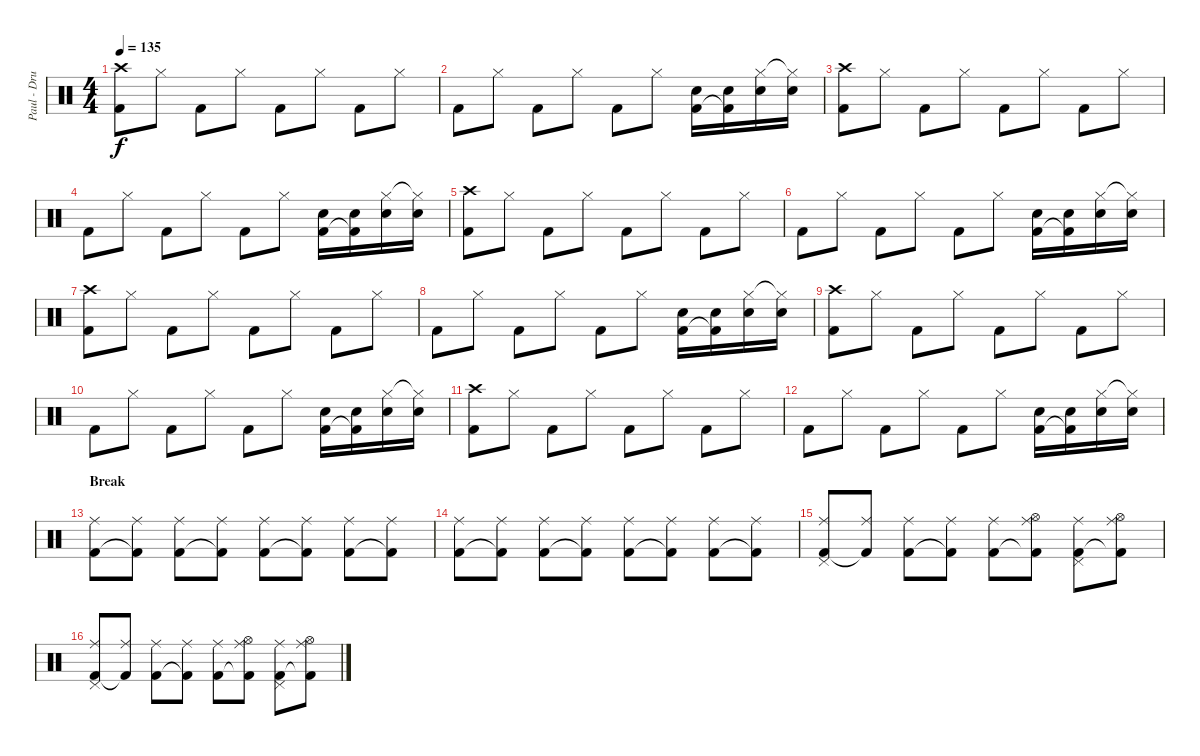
\track ("Paul - Drums" "Paul - Dru") {instrument percussion}
\staff {score}
\articulation defaults
\ts (4 4)
\tempo 135
\clef neutral
\ks c
("Kick (hit) 2" "Crash high (hit)").8{dy f} "Hi-Hat (closed)".8 "Kick (hit) 2".8 "Hi-Hat (closed)".8 "Kick (hit) 2".8 "Hi-Hat (closed)".8 "Kick (hit) 2".8 "Hi-Hat (closed)".8 |
"Kick (hit) 2".8 "Hi-Hat (closed)".8 "Kick (hit) 2".8 "Hi-Hat (closed)".8 "Kick (hit) 2".8 "Hi-Hat (closed)".8 ("Kick (hit) 2" "Snare (hit) 2").16 ("Kick (hit) 2"{t} "Snare (hit) 2").16 ("Hi-Hat (closed)" "Snare (hit) 2").16 ("Hi-Hat (closed)"{t} "Snare (hit) 2").16 |
("Kick (hit) 2" "Crash high (hit)").8 "Hi-Hat (closed)".8 "Kick (hit) 2".8 "Hi-Hat (closed)".8 "Kick (hit) 2".8 "Hi-Hat (closed)".8 "Kick (hit) 2".8 "Hi-Hat (closed)".8 |
"Kick (hit) 2".8 "Hi-Hat (closed)".8 "Kick (hit) 2".8 "Hi-Hat (closed)".8 "Kick (hit) 2".8 "Hi-Hat (closed)".8 ("Kick (hit) 2" "Snare (hit) 2").16 ("Kick (hit) 2"{t} "Snare (hit) 2").16 ("Hi-Hat (closed)" "Snare (hit) 2").16 ("Hi-Hat (closed)"{t} "Snare (hit) 2").16 |
("Kick (hit) 2" "Crash high (hit)").8 "Hi-Hat (closed)".8 "Kick (hit) 2".8 "Hi-Hat (closed)".8 "Kick (hit) 2".8 "Hi-Hat (closed)".8 "Kick (hit) 2".8 "Hi-Hat (closed)".8 |
"Kick (hit) 2".8 "Hi-Hat (closed)".8 "Kick (hit) 2".8 "Hi-Hat (closed)".8 "Kick (hit) 2".8 "Hi-Hat (closed)".8 ("Kick (hit) 2" "Snare (hit) 2").16 ("Kick (hit) 2"{t} "Snare (hit) 2").16 ("Hi-Hat (closed)" "Snare (hit) 2").16 ("Hi-Hat (closed)"{t} "Snare (hit) 2").16 |
("Kick (hit) 2" "Crash high (hit)").8 "Hi-Hat (closed)".8 "Kick (hit) 2".8 "Hi-Hat (closed)".8 "Kick (hit) 2".8 "Hi-Hat (closed)".8 "Kick (hit) 2".8 "Hi-Hat (closed)".8 |
"Kick (hit) 2".8 "Hi-Hat (closed)".8 "Kick (hit) 2".8 "Hi-Hat (closed)".8 "Kick (hit) 2".8 "Hi-Hat (closed)".8 ("Kick (hit) 2" "Snare (hit) 2").16 ("Kick (hit) 2"{t} "Snare (hit) 2").16 ("Hi-Hat (closed)" "Snare (hit) 2").16 ("Hi-Hat (closed)"{t} "Snare (hit) 2").16 |
("Kick (hit) 2" "Crash high (hit)").8 "Hi-Hat (closed)".8 "Kick (hit) 2".8 "Hi-Hat (closed)".8 "Kick (hit) 2".8 "Hi-Hat (closed)".8 "Kick (hit) 2".8 "Hi-Hat (closed)".8 |
"Kick (hit) 2".8 "Hi-Hat (closed)".8 "Kick (hit) 2".8 "Hi-Hat (closed)".8 "Kick (hit) 2".8 "Hi-Hat (closed)".8 ("Kick (hit) 2" "Snare (hit) 2").16 ("Kick (hit) 2"{t} "Snare (hit) 2").16 ("Hi-Hat (closed)" "Snare (hit) 2").16 ("Hi-Hat (closed)"{t} "Snare (hit) 2").16 |
("Kick (hit) 2" "Crash high (hit)").8 "Hi-Hat (closed)".8 "Kick (hit) 2".8 "Hi-Hat (closed)".8 "Kick (hit) 2".8 "Hi-Hat (closed)".8 "Kick (hit) 2".8 "Hi-Hat (closed)".8 |
"Kick (hit) 2".8 "Hi-Hat (closed)".8 "Kick (hit) 2".8 "Hi-Hat (closed)".8 "Kick (hit) 2".8 "Hi-Hat (closed)".8 ("Kick (hit) 2" "Snare (hit) 2").16 ("Kick (hit) 2"{t} "Snare (hit) 2").16 ("Hi-Hat (closed)" "Snare (hit) 2").16 ("Hi-Hat (closed)"{t} "Snare (hit) 2").16 |
\section ("" "Break")
("Kick (hit) 2" "Ride (middle)").8 ("Kick (hit) 2"{t} "Ride (middle)").8 ("Kick (hit) 2" "Ride (middle)").8 ("Kick (hit) 2"{t} "Ride (middle)").8 ("Kick (hit) 2" "Ride (middle)").8 ("Kick (hit) 2"{t} "Ride (middle)").8 ("Kick (hit) 2" "Ride (middle)").8 ("Kick (hit) 2"{t} "Ride (middle)").8 |
("Kick (hit) 2" "Ride (middle)").8 ("Kick (hit) 2"{t} "Ride (middle)").8 ("Kick (hit) 2" "Ride (middle)").8 ("Kick (hit) 2"{t} "Ride (middle)").8 ("Kick (hit) 2" "Ride (middle)").8 ("Kick (hit) 2"{t} "Ride (middle)").8 ("Kick (hit) 2" "Ride (middle)").8 ("Kick (hit) 2"{t} "Ride (middle)").8 |
("Kick (hit) 2" "Ride (middle)" "Pedal Hi-Hat (hit)").8 ("Kick (hit) 2"{t} "Ride (middle)").8 ("Kick (hit) 2" "Ride (middle)").8 ("Kick (hit) 2"{t} "Ride (middle)").8 ("Kick (hit) 2" "Ride (middle)").8 ("Kick (hit) 2"{t} "Ride (middle)" "Hi-Hat (open)").8 ("Kick (hit) 2" "Ride (middle)" "Pedal Hi-Hat (hit)").8 ("Kick (hit) 2"{t} "Ride (middle)" "Hi-Hat (open)").8 |
("Kick (hit) 2" "Ride (middle)" "Pedal Hi-Hat (hit)").8 ("Kick (hit) 2"{t} "Ride (middle)").8 ("Kick (hit) 2" "Ride (middle)").8 ("Kick (hit) 2"{t} "Ride (middle)").8 ("Kick (hit) 2" "Ride (middle)").8 ("Kick (hit) 2"{t} "Ride (middle)" "Hi-Hat (open)").8 ("Kick (hit) 2" "Ride (middle)" "Pedal Hi-Hat (hit)").8 ("Kick (hit) 2"{t} "Ride (middle)" "Hi-Hat (open)").8
